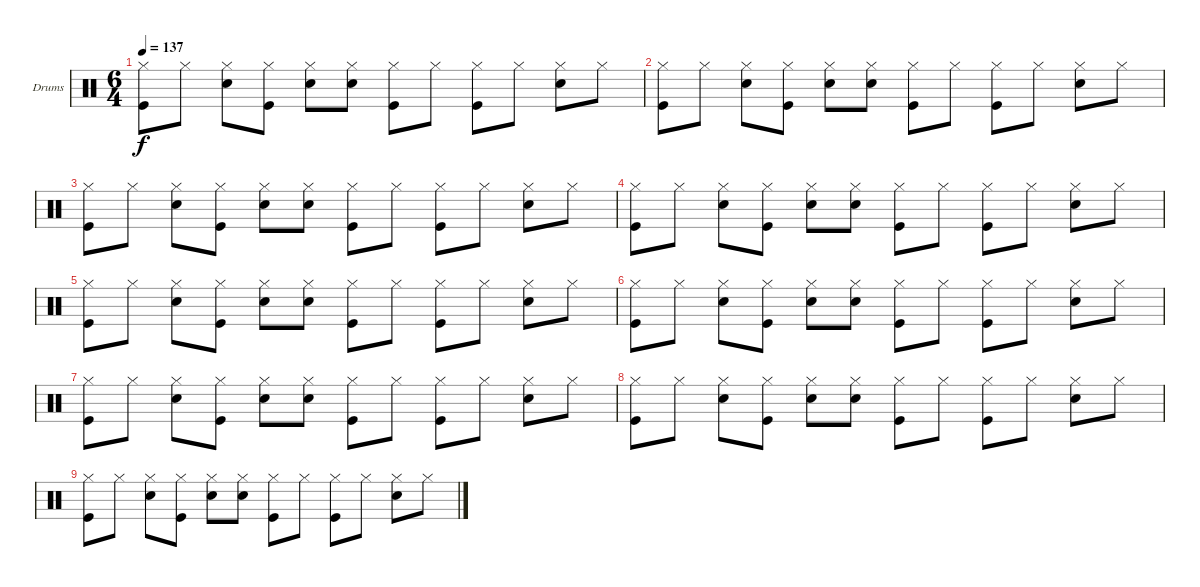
\bracketExtendMode groupsimilarinstruments
\firstSystemTrackNameOrientation horizontal
\otherSystemsTrackNameOrientation horizontal
\track ("Peter Ulrich (Drums)" "Drums") {instrument percussion}
\staff {score}
\articulation defaults
\ts (6 4)
\tempo 137
\clef neutral
\ks c
("Hi-Hat (closed)" "Kick (hit)").8{dy f} "Hi-Hat (closed)".8 ("Hi-Hat (closed)" "Snare (hit) 2").8 ("Hi-Hat (closed)" "Kick (hit)").8 ("Hi-Hat (closed)" "Snare (hit) 2").8 ("Hi-Hat (closed)" "Snare (hit) 2").8 ("Hi-Hat (closed)" "Kick (hit)").8 "Hi-Hat (closed)".8 ("Hi-Hat (closed)" "Kick (hit)").8 "Hi-Hat (closed)".8 ("Hi-Hat (closed)" "Snare (hit) 2").8 "Hi-Hat (closed)".8 |
("Hi-Hat (closed)" "Kick (hit)").8 "Hi-Hat (closed)".8 ("Hi-Hat (closed)" "Snare (hit) 2").8 ("Hi-Hat (closed)" "Kick (hit)").8 ("Hi-Hat (closed)" "Snare (hit) 2").8 ("Hi-Hat (closed)" "Snare (hit) 2").8 ("Hi-Hat (closed)" "Kick (hit)").8 "Hi-Hat (closed)".8 ("Hi-Hat (closed)" "Kick (hit)").8 "Hi-Hat (closed)".8 ("Hi-Hat (closed)" "Snare (hit) 2").8 "Hi-Hat (closed)".8 |
("Hi-Hat (closed)" "Kick (hit)").8 "Hi-Hat (closed)".8 ("Hi-Hat (closed)" "Snare (hit) 2").8 ("Hi-Hat (closed)" "Kick (hit)").8 ("Hi-Hat (closed)" "Snare (hit) 2").8 ("Hi-Hat (closed)" "Snare (hit) 2").8 ("Hi-Hat (closed)" "Kick (hit)").8 "Hi-Hat (closed)".8 ("Hi-Hat (closed)" "Kick (hit)").8 "Hi-Hat (closed)".8 ("Hi-Hat (closed)" "Snare (hit) 2").8 "Hi-Hat (closed)".8 |
("Hi-Hat (closed)" "Kick (hit)").8 "Hi-Hat (closed)".8 ("Hi-Hat (closed)" "Snare (hit) 2").8 ("Hi-Hat (closed)" "Kick (hit)").8 ("Hi-Hat (closed)" "Snare (hit) 2").8 ("Hi-Hat (closed)" "Snare (hit) 2").8 ("Hi-Hat (closed)" "Kick (hit)").8 "Hi-Hat (closed)".8 ("Hi-Hat (closed)" "Kick (hit)").8 "Hi-Hat (closed)".8 ("Hi-Hat (closed)" "Snare (hit) 2").8 "Hi-Hat (closed)".8 |
("Hi-Hat (closed)" "Kick (hit)").8 "Hi-Hat (closed)".8 ("Hi-Hat (closed)" "Snare (hit) 2").8 ("Hi-Hat (closed)" "Kick (hit)").8 ("Hi-Hat (closed)" "Snare (hit) 2").8 ("Hi-Hat (closed)" "Snare (hit) 2").8 ("Hi-Hat (closed)" "Kick (hit)").8 "Hi-Hat (closed)".8 ("Hi-Hat (closed)" "Kick (hit)").8 "Hi-Hat (closed)".8 ("Hi-Hat (closed)" "Snare (hit) 2").8 "Hi-Hat (closed)".8 |
("Hi-Hat (closed)" "Kick (hit)").8 "Hi-Hat (closed)".8 ("Hi-Hat (closed)" "Snare (hit) 2").8 ("Hi-Hat (closed)" "Kick (hit)").8 ("Hi-Hat (closed)" "Snare (hit) 2").8 ("Hi-Hat (closed)" "Snare (hit) 2").8 ("Hi-Hat (closed)" "Kick (hit)").8 "Hi-Hat (closed)".8 ("Hi-Hat (closed)" "Kick (hit)").8 "Hi-Hat (closed)".8 ("Hi-Hat (closed)" "Snare (hit) 2").8 "Hi-Hat (closed)".8 |
("Hi-Hat (closed)" "Kick (hit)").8 "Hi-Hat (closed)".8 ("Hi-Hat (closed)" "Snare (hit) 2").8 ("Hi-Hat (closed)" "Kick (hit)").8 ("Hi-Hat (closed)" "Snare (hit) 2").8 ("Hi-Hat (closed)" "Snare (hit) 2").8 ("Hi-Hat (closed)" "Kick (hit)").8 "Hi-Hat (closed)".8 ("Hi-Hat (closed)" "Kick (hit)").8 "Hi-Hat (closed)".8 ("Hi-Hat (closed)" "Snare (hit) 2").8 "Hi-Hat (closed)".8 |
("Hi-Hat (closed)" "Kick (hit)").8 "Hi-Hat (closed)".8 ("Hi-Hat (closed)" "Snare (hit) 2").8 ("Hi-Hat (closed)" "Kick (hit)").8 ("Hi-Hat (closed)" "Snare (hit) 2").8 ("Hi-Hat (closed)" "Snare (hit) 2").8 ("Hi-Hat (closed)" "Kick (hit)").8 "Hi-Hat (closed)".8 ("Hi-Hat (closed)" "Kick (hit)").8 "Hi-Hat (closed)".8 ("Hi-Hat (closed)" "Snare (hit) 2").8 "Hi-Hat (closed)".8 |
("Hi-Hat (closed)" "Kick (hit)").8 "Hi-Hat (closed)".8 ("Hi-Hat (closed)" "Snare (hit) 2").8 ("Hi-Hat (closed)" "Kick (hit)").8 ("Hi-Hat (closed)" "Snare (hit) 2").8 ("Hi-Hat (closed)" "Snare (hit) 2").8 ("Hi-Hat (closed)" "Kick (hit)").8 "Hi-Hat (closed)".8 ("Hi-Hat (closed)" "Kick (hit)").8 "Hi-Hat (closed)".8 ("Hi-Hat (closed)" "Snare (hit) 2").8 "Hi-Hat (closed)".8
